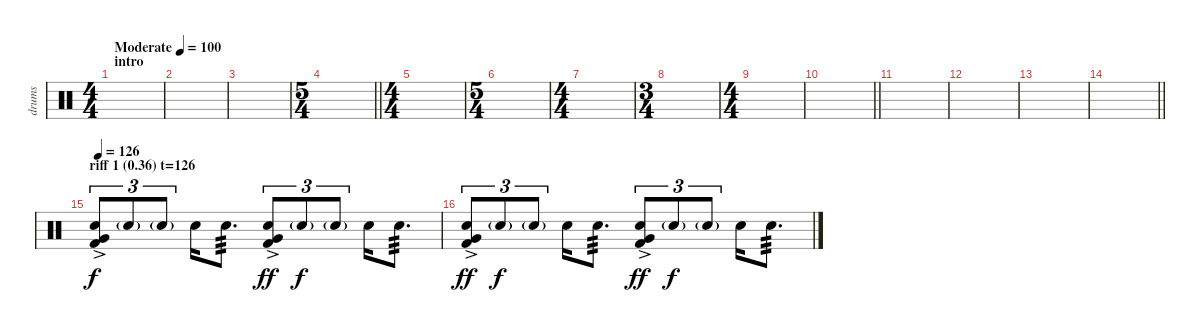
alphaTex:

\track ("drums" "drums") {instrument percussion}
\staff {score}
\articulation defaults
\ts (4 4)
\section ("" "intro")
\tempo (100 "Moderate")
\clef neutral
\ks c
|
|
|
\ts (5 4)
\barLineRight lightlight
|
\ts (4 4)
|
\ts (5 4)
|
\ts (4 4)
|
\ts (3 4)
|
\ts (4 4)
|
\barLineRight lightlight
|
|
|
|
\barLineRight lightlight
|
\section ("" "riff 1 (0.36) t=126")
\tempo 126
("Very Low Tom (hit)"{ac} "Electric Snare (hit)" "Kick (hit) 2").8{tu (3 2)} "Electric Snare (hit)"{g}.8{tu (3 2) dy f} "Electric Snare (hit)"{g}.8{tu (3 2)} "Electric Snare (hit)".16 "Electric Snare (hit)".8{d tp 3} ("Very Low Tom (hit)"{ac} "Electric Snare (hit)" "Kick (hit) 2").8{tu (3 2) dy ff} "Electric Snare (hit)"{g}.8{tu (3 2) dy f} "Electric Snare (hit)"{g}.8{tu (3 2)} "Electric Snare (hit)".16 "Electric Snare (hit)".8{d tp 3} |
("Very Low Tom (hit)"{ac} "Electric Snare (hit)" "Kick (hit) 2").8{tu (3 2) dy ff} "Electric Snare (hit)"{g}.8{tu (3 2) dy f} "Electric Snare (hit)"{g}.8{tu (3 2)} "Electric Snare (hit)".16 "Electric Snare (hit)".8{d tp 3} ("Very Low Tom (hit)"{ac} "Electric Snare (hit)" "Kick (hit) 2").8{tu (3 2) dy ff} "Electric Snare (hit)"{g}.8{tu (3 2) dy f} "Electric Snare (hit)"{g}.8{tu (3 2)} "Electric Snare (hit)".16 "Electric Snare (hit)".8{d tp 3}
